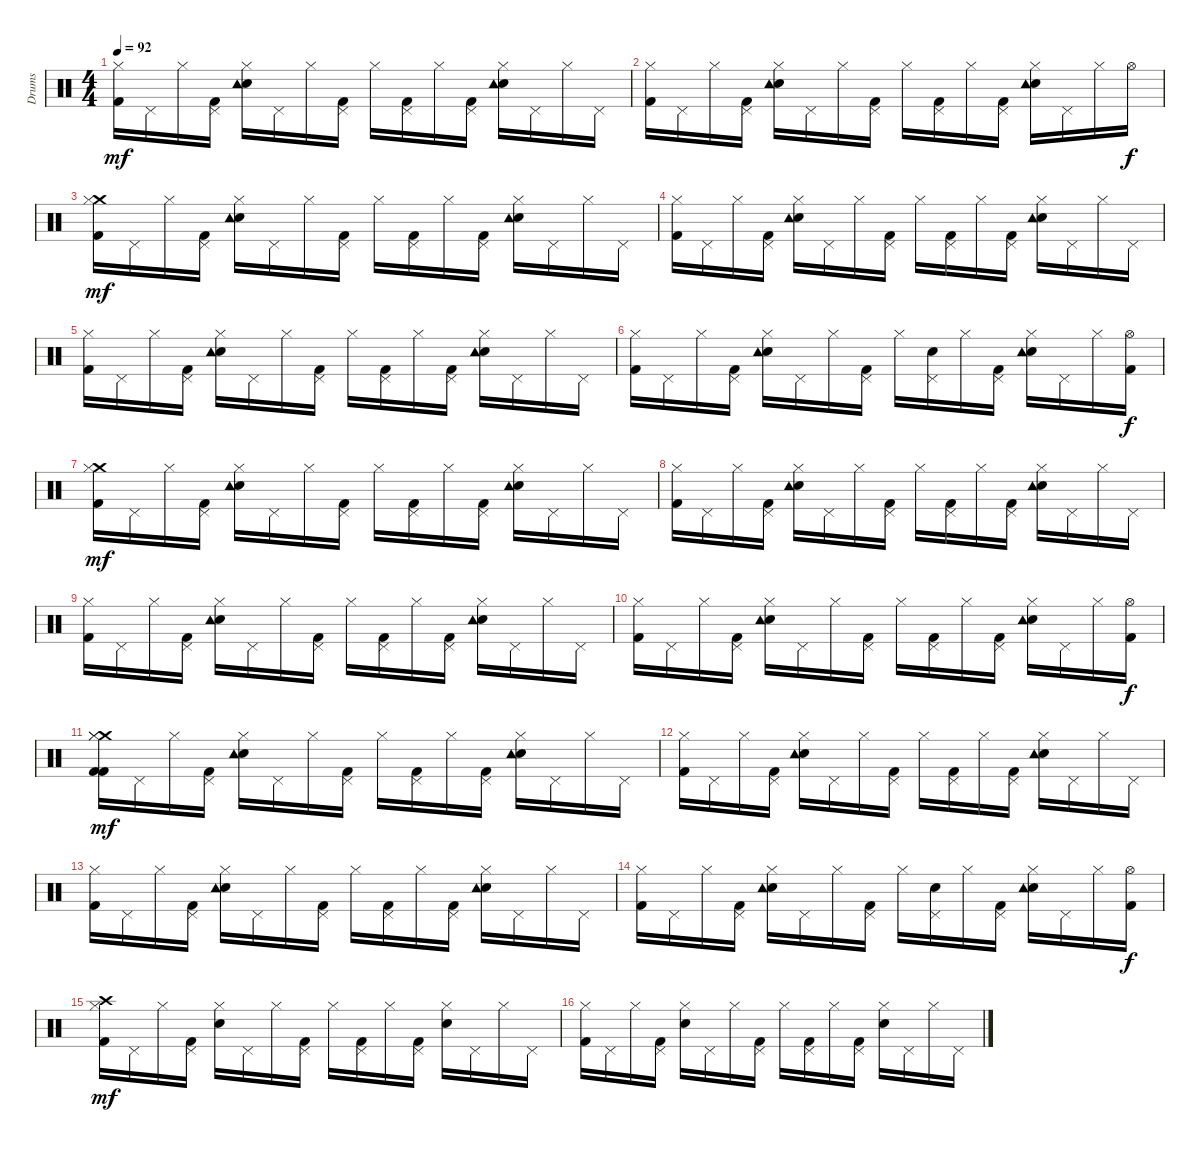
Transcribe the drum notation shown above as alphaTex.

\track ("Drums" "Drums") {instrument percussion}
\staff {score}
\articulation defaults
\ts (4 4)
\tempo 92
\clef neutral
\ks c
("Kick (hit) 2" "Hi-Hat (closed)").16{dy mf} "Pedal Hi-Hat (hit)".16 "Hi-Hat (closed)".16 ("Kick (hit) 2" "Pedal Hi-Hat (hit)").16 ("Electric Snare (hit)" "Hi-Hat (closed)" "Tambourine (hit)").16 "Pedal Hi-Hat (hit)".16 "Hi-Hat (closed)".16 ("Kick (hit) 2" "Pedal Hi-Hat (hit)").16 "Hi-Hat (closed)".16 ("Kick (hit) 2" "Pedal Hi-Hat (hit)").16 "Hi-Hat (closed)".16 ("Kick (hit) 2" "Pedal Hi-Hat (hit)").16 ("Electric Snare (hit)" "Hi-Hat (closed)" "Tambourine (hit)").16 "Pedal Hi-Hat (hit)".16 "Hi-Hat (closed)".16 "Pedal Hi-Hat (hit)".16 |
("Kick (hit) 2" "Hi-Hat (closed)").16 "Pedal Hi-Hat (hit)".16 "Hi-Hat (closed)".16 ("Kick (hit) 2" "Pedal Hi-Hat (hit)").16 ("Electric Snare (hit)" "Hi-Hat (closed)" "Tambourine (hit)").16 "Pedal Hi-Hat (hit)".16 "Hi-Hat (closed)".16 ("Kick (hit) 2" "Pedal Hi-Hat (hit)").16 "Hi-Hat (closed)".16 ("Kick (hit) 2" "Pedal Hi-Hat (hit)").16 "Hi-Hat (closed)".16 ("Kick (hit) 2" "Pedal Hi-Hat (hit)").16 ("Electric Snare (hit)" "Hi-Hat (closed)" "Tambourine (hit)").16 "Pedal Hi-Hat (hit)".16 "Hi-Hat (closed)".16 "Hi-Hat (open)".16{dy f} |
("Crash medium (hit)" "Kick (hit) 2" "Hi-Hat (closed)").16{dy mf} "Pedal Hi-Hat (hit)".16 "Hi-Hat (closed)".16 ("Kick (hit) 2" "Pedal Hi-Hat (hit)").16 ("Electric Snare (hit)" "Hi-Hat (closed)" "Tambourine (hit)").16 "Pedal Hi-Hat (hit)".16 "Hi-Hat (closed)".16 ("Kick (hit) 2" "Pedal Hi-Hat (hit)").16 "Hi-Hat (closed)".16 ("Kick (hit) 2" "Pedal Hi-Hat (hit)").16 "Hi-Hat (closed)".16 ("Kick (hit) 2" "Pedal Hi-Hat (hit)").16 ("Electric Snare (hit)" "Hi-Hat (closed)" "Tambourine (hit)").16 "Pedal Hi-Hat (hit)".16 "Hi-Hat (closed)".16 "Pedal Hi-Hat (hit)".16 |
("Kick (hit) 2" "Hi-Hat (closed)").16 "Pedal Hi-Hat (hit)".16 "Hi-Hat (closed)".16 ("Kick (hit) 2" "Pedal Hi-Hat (hit)").16 ("Electric Snare (hit)" "Hi-Hat (closed)" "Tambourine (hit)").16 "Pedal Hi-Hat (hit)".16 "Hi-Hat (closed)".16 ("Kick (hit) 2" "Pedal Hi-Hat (hit)").16 "Hi-Hat (closed)".16 ("Kick (hit) 2" "Pedal Hi-Hat (hit)").16 "Hi-Hat (closed)".16 ("Kick (hit) 2" "Pedal Hi-Hat (hit)").16 ("Electric Snare (hit)" "Hi-Hat (closed)" "Tambourine (hit)").16 "Pedal Hi-Hat (hit)".16 "Hi-Hat (closed)".16 "Pedal Hi-Hat (hit)".16 |
("Kick (hit) 2" "Hi-Hat (closed)").16 "Pedal Hi-Hat (hit)".16 "Hi-Hat (closed)".16 ("Kick (hit) 2" "Pedal Hi-Hat (hit)").16 ("Electric Snare (hit)" "Hi-Hat (closed)" "Tambourine (hit)").16 "Pedal Hi-Hat (hit)".16 "Hi-Hat (closed)".16 ("Kick (hit) 2" "Pedal Hi-Hat (hit)").16 "Hi-Hat (closed)".16 ("Kick (hit) 2" "Pedal Hi-Hat (hit)").16 "Hi-Hat (closed)".16 ("Kick (hit) 2" "Pedal Hi-Hat (hit)").16 ("Electric Snare (hit)" "Hi-Hat (closed)" "Tambourine (hit)").16 "Pedal Hi-Hat (hit)".16 "Hi-Hat (closed)".16 "Pedal Hi-Hat (hit)".16 |
("Kick (hit) 2" "Hi-Hat (closed)").16 "Pedal Hi-Hat (hit)".16 "Hi-Hat (closed)".16 ("Kick (hit) 2" "Pedal Hi-Hat (hit)").16 ("Electric Snare (hit)" "Hi-Hat (closed)" "Tambourine (hit)").16 "Pedal Hi-Hat (hit)".16 "Hi-Hat (closed)".16 ("Kick (hit) 2" "Pedal Hi-Hat (hit)").16 "Hi-Hat (closed)".16 ("Electric Snare (hit)" "Pedal Hi-Hat (hit)").16 "Hi-Hat (closed)".16 ("Kick (hit) 2" "Pedal Hi-Hat (hit)").16 ("Electric Snare (hit)" "Hi-Hat (closed)" "Tambourine (hit)").16 "Pedal Hi-Hat (hit)".16 "Hi-Hat (closed)".16 ("Kick (hit) 2" "Hi-Hat (open)").16{dy f} |
("Crash medium (hit)" "Kick (hit) 2" "Hi-Hat (closed)").16{dy mf} "Pedal Hi-Hat (hit)".16 "Hi-Hat (closed)".16 ("Kick (hit) 2" "Pedal Hi-Hat (hit)").16 ("Electric Snare (hit)" "Hi-Hat (closed)" "Tambourine (hit)").16 "Pedal Hi-Hat (hit)".16 "Hi-Hat (closed)".16 ("Kick (hit) 2" "Pedal Hi-Hat (hit)").16 "Hi-Hat (closed)".16 ("Kick (hit) 2" "Pedal Hi-Hat (hit)").16 "Hi-Hat (closed)".16 ("Kick (hit) 2" "Pedal Hi-Hat (hit)").16 ("Electric Snare (hit)" "Hi-Hat (closed)" "Tambourine (hit)").16 "Pedal Hi-Hat (hit)".16 "Hi-Hat (closed)".16 "Pedal Hi-Hat (hit)".16 |
("Kick (hit) 2" "Hi-Hat (closed)").16 "Pedal Hi-Hat (hit)".16 "Hi-Hat (closed)".16 ("Kick (hit) 2" "Pedal Hi-Hat (hit)").16 ("Electric Snare (hit)" "Hi-Hat (closed)" "Tambourine (hit)").16 "Pedal Hi-Hat (hit)".16 "Hi-Hat (closed)".16 ("Kick (hit) 2" "Pedal Hi-Hat (hit)").16 "Hi-Hat (closed)".16 ("Kick (hit) 2" "Pedal Hi-Hat (hit)").16 "Hi-Hat (closed)".16 ("Kick (hit) 2" "Pedal Hi-Hat (hit)").16 ("Electric Snare (hit)" "Hi-Hat (closed)" "Tambourine (hit)").16 "Pedal Hi-Hat (hit)".16 "Hi-Hat (closed)".16 "Pedal Hi-Hat (hit)".16 |
("Kick (hit) 2" "Hi-Hat (closed)").16 "Pedal Hi-Hat (hit)".16 "Hi-Hat (closed)".16 ("Kick (hit) 2" "Pedal Hi-Hat (hit)").16 ("Electric Snare (hit)" "Hi-Hat (closed)" "Tambourine (hit)").16 "Pedal Hi-Hat (hit)".16 "Hi-Hat (closed)".16 ("Kick (hit) 2" "Pedal Hi-Hat (hit)").16 "Hi-Hat (closed)".16 ("Kick (hit) 2" "Pedal Hi-Hat (hit)").16 "Hi-Hat (closed)".16 ("Kick (hit) 2" "Pedal Hi-Hat (hit)").16 ("Electric Snare (hit)" "Hi-Hat (closed)" "Tambourine (hit)").16 "Pedal Hi-Hat (hit)".16 "Hi-Hat (closed)".16 "Pedal Hi-Hat (hit)".16 |
("Kick (hit) 2" "Hi-Hat (closed)").16 "Pedal Hi-Hat (hit)".16 "Hi-Hat (closed)".16 ("Kick (hit) 2" "Pedal Hi-Hat (hit)").16 ("Electric Snare (hit)" "Hi-Hat (closed)" "Tambourine (hit)").16 "Pedal Hi-Hat (hit)".16 "Hi-Hat (closed)".16 ("Kick (hit) 2" "Pedal Hi-Hat (hit)").16 "Hi-Hat (closed)".16 ("Kick (hit) 2" "Pedal Hi-Hat (hit)").16 "Hi-Hat (closed)".16 ("Kick (hit) 2" "Pedal Hi-Hat (hit)").16 ("Electric Snare (hit)" "Hi-Hat (closed)" "Tambourine (hit)").16 "Pedal Hi-Hat (hit)".16 "Hi-Hat (closed)".16 ("Kick (hit) 2" "Hi-Hat (open)").16{dy f} |
("Kick (hit) 2" "Crash medium (hit)" "Kick (hit) 2" "Hi-Hat (closed)" "Hi-Hat (closed)").16{dy mf} "Pedal Hi-Hat (hit)".16 "Hi-Hat (closed)".16 ("Kick (hit) 2" "Pedal Hi-Hat (hit)").16 ("Electric Snare (hit)" "Hi-Hat (closed)" "Tambourine (hit)").16 "Pedal Hi-Hat (hit)".16 "Hi-Hat (closed)".16 ("Kick (hit) 2" "Pedal Hi-Hat (hit)").16 "Hi-Hat (closed)".16 ("Kick (hit) 2" "Pedal Hi-Hat (hit)").16 "Hi-Hat (closed)".16 ("Kick (hit) 2" "Pedal Hi-Hat (hit)").16 ("Electric Snare (hit)" "Hi-Hat (closed)" "Tambourine (hit)").16 "Pedal Hi-Hat (hit)".16 "Hi-Hat (closed)".16 "Pedal Hi-Hat (hit)".16 |
("Kick (hit) 2" "Hi-Hat (closed)").16 "Pedal Hi-Hat (hit)".16 "Hi-Hat (closed)".16 ("Kick (hit) 2" "Pedal Hi-Hat (hit)").16 ("Electric Snare (hit)" "Hi-Hat (closed)" "Tambourine (hit)").16 "Pedal Hi-Hat (hit)".16 "Hi-Hat (closed)".16 ("Kick (hit) 2" "Pedal Hi-Hat (hit)").16 "Hi-Hat (closed)".16 ("Kick (hit) 2" "Pedal Hi-Hat (hit)").16 "Hi-Hat (closed)".16 ("Kick (hit) 2" "Pedal Hi-Hat (hit)").16 ("Electric Snare (hit)" "Hi-Hat (closed)" "Tambourine (hit)").16 "Pedal Hi-Hat (hit)".16 "Hi-Hat (closed)".16 "Pedal Hi-Hat (hit)".16 |
("Kick (hit) 2" "Hi-Hat (closed)").16 "Pedal Hi-Hat (hit)".16 "Hi-Hat (closed)".16 ("Kick (hit) 2" "Pedal Hi-Hat (hit)").16 ("Electric Snare (hit)" "Hi-Hat (closed)" "Tambourine (hit)").16 "Pedal Hi-Hat (hit)".16 "Hi-Hat (closed)".16 ("Kick (hit) 2" "Pedal Hi-Hat (hit)").16 "Hi-Hat (closed)".16 ("Kick (hit) 2" "Pedal Hi-Hat (hit)").16 "Hi-Hat (closed)".16 ("Kick (hit) 2" "Pedal Hi-Hat (hit)").16 ("Electric Snare (hit)" "Hi-Hat (closed)" "Tambourine (hit)").16 "Pedal Hi-Hat (hit)".16 "Hi-Hat (closed)".16 "Pedal Hi-Hat (hit)".16 |
("Kick (hit) 2" "Hi-Hat (closed)").16 "Pedal Hi-Hat (hit)".16 "Hi-Hat (closed)".16 ("Kick (hit) 2" "Pedal Hi-Hat (hit)").16 ("Electric Snare (hit)" "Hi-Hat (closed)" "Tambourine (hit)").16 "Pedal Hi-Hat (hit)".16 "Hi-Hat (closed)".16 ("Kick (hit) 2" "Pedal Hi-Hat (hit)").16 "Hi-Hat (closed)".16 ("Electric Snare (hit)" "Pedal Hi-Hat (hit)").16 "Hi-Hat (closed)".16 ("Kick (hit) 2" "Pedal Hi-Hat (hit)").16 ("Electric Snare (hit)" "Hi-Hat (closed)" "Tambourine (hit)").16 "Pedal Hi-Hat (hit)".16 "Hi-Hat (closed)".16 ("Kick (hit) 2" "Hi-Hat (open)").16{dy f} |
("Crash high (hit)" "Kick (hit) 2" "Hi-Hat (closed)").16{dy mf} "Pedal Hi-Hat (hit)".16 "Hi-Hat (closed)".16 ("Kick (hit) 2" "Pedal Hi-Hat (hit)").16 ("Electric Snare (hit)" "Hi-Hat (closed)").16 "Pedal Hi-Hat (hit)".16 "Hi-Hat (closed)".16 ("Kick (hit) 2" "Pedal Hi-Hat (hit)").16 "Hi-Hat (closed)".16 ("Kick (hit) 2" "Pedal Hi-Hat (hit)").16 "Hi-Hat (closed)".16 ("Kick (hit) 2" "Pedal Hi-Hat (hit)").16 ("Electric Snare (hit)" "Hi-Hat (closed)").16 "Pedal Hi-Hat (hit)".16 "Hi-Hat (closed)".16 "Pedal Hi-Hat (hit)".16 |
("Kick (hit) 2" "Hi-Hat (closed)").16 "Pedal Hi-Hat (hit)".16 "Hi-Hat (closed)".16 ("Kick (hit) 2" "Pedal Hi-Hat (hit)").16 ("Electric Snare (hit)" "Hi-Hat (closed)").16 "Pedal Hi-Hat (hit)".16 "Hi-Hat (closed)".16 ("Kick (hit) 2" "Pedal Hi-Hat (hit)").16 "Hi-Hat (closed)".16 ("Kick (hit) 2" "Pedal Hi-Hat (hit)").16 "Hi-Hat (closed)".16 ("Kick (hit) 2" "Pedal Hi-Hat (hit)").16 ("Electric Snare (hit)" "Hi-Hat (closed)").16 "Pedal Hi-Hat (hit)".16 "Hi-Hat (closed)".16 "Pedal Hi-Hat (hit)".16
